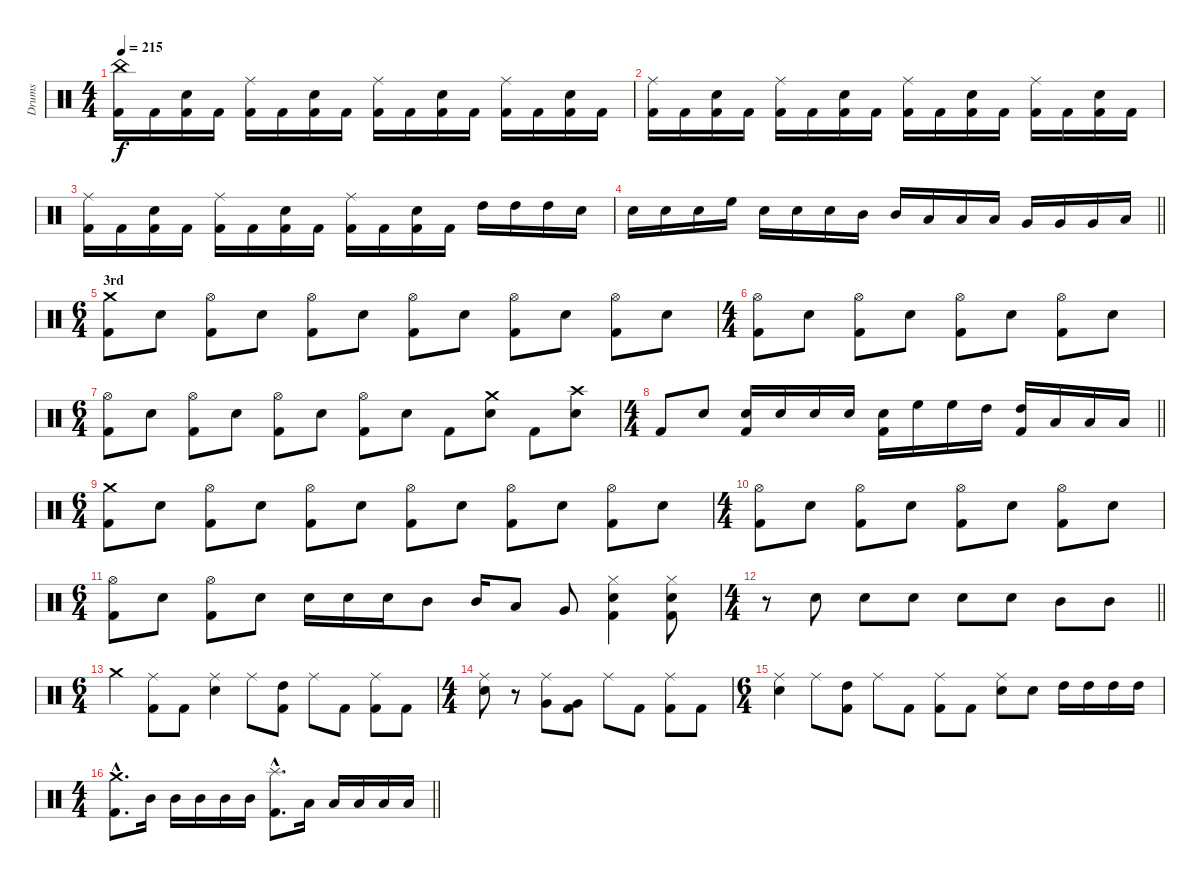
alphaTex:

\track ("Drums" "Drums") {instrument percussion}
\staff {score}
\articulation defaults
\ts (4 4)
\tempo 215
\clef neutral
\ks c
("China (hit)" "Kick (hit) 2").16{dy f} "Kick (hit) 2".16 ("Snare (hit) 2" "Kick (hit) 2").16 "Kick (hit) 2".16 ("Ride (middle)" "Kick (hit) 2").16 "Kick (hit) 2".16 ("Snare (hit) 2" "Kick (hit) 2").16 "Kick (hit) 2".16 ("Ride (middle)" "Kick (hit) 2").16 "Kick (hit) 2".16 ("Snare (hit) 2" "Kick (hit) 2").16 "Kick (hit) 2".16 ("Ride (middle)" "Kick (hit) 2").16 "Kick (hit) 2".16 ("Snare (hit) 2" "Kick (hit) 2").16 "Kick (hit) 2".16 |
("Ride (middle)" "Kick (hit) 2").16 "Kick (hit) 2".16 ("Snare (hit) 2" "Kick (hit) 2").16 "Kick (hit) 2".16 ("Ride (middle)" "Kick (hit) 2").16 "Kick (hit) 2".16 ("Snare (hit) 2" "Kick (hit) 2").16 "Kick (hit) 2".16 ("Ride (middle)" "Kick (hit) 2").16 "Kick (hit) 2".16 ("Snare (hit) 2" "Kick (hit) 2").16 "Kick (hit) 2".16 ("Ride (middle)" "Kick (hit) 2").16 "Kick (hit) 2".16 ("Snare (hit) 2" "Kick (hit) 2").16 "Kick (hit) 2".16 |
("Ride (middle)" "Kick (hit) 2").16 "Kick (hit) 2".16 ("Snare (hit) 2" "Kick (hit) 2").16 "Kick (hit) 2".16 ("Ride (middle)" "Kick (hit) 2").16 "Kick (hit) 2".16 ("Snare (hit) 2" "Kick (hit) 2").16 "Kick (hit) 2".16 ("Ride (middle)" "Kick (hit) 2").16 "Kick (hit) 2".16 ("Snare (hit) 2" "Kick (hit) 2").16 "Kick (hit) 2".16 "High Tom (hit)".16 "High Tom (hit)".16 "High Tom (hit)".16 "Snare (hit) 2".16 |
\barLineRight lightlight "Snare (hit) 2".16 "Snare (hit) 2".16 "Snare (hit) 2".16 "High Floor Tom (hit)".16 "Snare (hit) 2".16 "Snare (hit) 2".16 "Snare (hit) 2".16 "Mid Tom (hit)".16 "Mid Tom (hit)".16 "Low Tom (hit)".16 "Low Tom (hit)".16 "Low Tom (hit)".16 "Very Low Tom (hit)".16 "Very Low Tom (hit)".16 "Very Low Tom (hit)".16 "Low Floor Tom (hit)".16
|
\ts (6 4)
\section ("" "3rd")
("Crash medium (hit)" "Kick (hit) 2").8 "Snare (hit) 2".8 ("Hi-Hat (open)" "Kick (hit) 2").8 "Snare (hit) 2".8 ("Hi-Hat (open)" "Kick (hit) 2").8 "Snare (hit) 2".8 ("Hi-Hat (open)" "Kick (hit) 2").8 "Snare (hit) 2".8 ("Hi-Hat (open)" "Kick (hit) 2").8 "Snare (hit) 2".8 ("Hi-Hat (open)" "Kick (hit) 2").8 "Snare (hit) 2".8 |
\ts (4 4)
("Hi-Hat (open)" "Kick (hit) 2").8 "Snare (hit) 2".8 ("Hi-Hat (open)" "Kick (hit) 2").8 "Snare (hit) 2".8 ("Hi-Hat (open)" "Kick (hit) 2").8 "Snare (hit) 2".8 ("Hi-Hat (open)" "Kick (hit) 2").8 "Snare (hit) 2".8 |
\ts (6 4)
("Hi-Hat (open)" "Kick (hit) 2").8 "Snare (hit) 2".8 ("Hi-Hat (open)" "Kick (hit) 2").8 "Snare (hit) 2".8 ("Hi-Hat (open)" "Kick (hit) 2").8 "Snare (hit) 2".8 ("Hi-Hat (open)" "Kick (hit) 2").8 "Snare (hit) 2".8 "Kick (hit) 2".8 ("Crash medium (hit)" "Snare (hit) 2").8 "Kick (hit) 2".8 ("Crash high (hit)" "Snare (hit) 2").8 |
\ts (4 4)
\barLineRight lightlight "Kick (hit) 2".8 "Snare (hit) 2".8
("Snare (hit) 2" "Kick (hit) 2").16 "Snare (hit) 2".16 "Snare (hit) 2".16 "Snare (hit) 2".16 ("Snare (hit) 2" "Kick (hit) 2").16 "High Floor Tom (hit)".16 "High Floor Tom (hit)".16 "High Tom (hit)".16 ("High Tom (hit)" "Kick (hit) 2").16 "Low Tom (hit)".16 "Low Tom (hit)".16 "Low Tom (hit)".16 |
\ts (6 4)
("Crash medium (hit)" "Kick (hit) 2").8 "Snare (hit) 2".8 ("Hi-Hat (open)" "Kick (hit) 2").8 "Snare (hit) 2".8 ("Hi-Hat (open)" "Kick (hit) 2").8 "Snare (hit) 2".8 ("Hi-Hat (open)" "Kick (hit) 2").8 "Snare (hit) 2".8 ("Hi-Hat (open)" "Kick (hit) 2").8 "Snare (hit) 2".8 ("Hi-Hat (open)" "Kick (hit) 2").8 "Snare (hit) 2".8 |
\ts (4 4)
("Hi-Hat (open)" "Kick (hit) 2").8 "Snare (hit) 2".8 ("Hi-Hat (open)" "Kick (hit) 2").8 "Snare (hit) 2".8 ("Hi-Hat (open)" "Kick (hit) 2").8 "Snare (hit) 2".8 ("Hi-Hat (open)" "Kick (hit) 2").8 "Snare (hit) 2".8 |
\ts (6 4)
("Hi-Hat (open)" "Kick (hit) 2").8 "Snare (hit) 2".8 ("Hi-Hat (open)" "Kick (hit) 2").8 "Snare (hit) 2".8 "Snare (hit) 2".16 "Snare (hit) 2".16 "Snare (hit) 2".16 "Mid Tom (hit)".8 "Mid Tom (hit)".16 "Low Tom (hit)".8 "Very Low Tom (hit)".8 ("Hi-Hat (closed)" "Snare (hit) 2" "Kick (hit) 2").4 ("Hi-Hat (closed)" "Snare (hit) 2" "Kick (hit) 2").8 |
\ts (4 4)
\barLineRight lightlight
r.8 "Snare (hit) 2".8 "Snare (hit) 2".8 "Snare (hit) 2".8 "Snare (hit) 2".8 "Snare (hit) 2".8 "Mid Tom (hit)".8 "Mid Tom (hit)".8 |
\ts (6 4)
"Crash medium (hit)".4 ("Ride (middle)" "Kick (hit) 2").8 "Kick (hit) 2".8 ("Ride (middle)" "Snare (hit) 2").4 "Ride (middle)".8 ("High Tom (hit)" "Kick (hit) 2").8 "Ride (middle)".8 "Kick (hit) 2".8 ("Ride (middle)" "Kick (hit) 2").8 "Kick (hit) 2".8 |
\ts (4 4)
("Ride (middle)" "Snare (hit) 2").8 r.8 ("Ride (middle)" "Very Low Tom (hit)").8 ("Very Low Tom (hit)" "Kick (hit) 2").8 "Ride (middle)".8 "Kick (hit) 2".8 ("Ride (middle)" "Kick (hit) 2").8 "Kick (hit) 2".8 |
\ts (6 4)
("Ride (middle)" "Snare (hit) 2").4 "Ride (middle)".8 ("High Tom (hit)" "Kick (hit) 2").8 "Ride (middle)".8 "Kick (hit) 2".8 ("Ride (middle)" "Kick (hit) 2").8 "Kick (hit) 2".8 ("Ride (middle)" "Snare (hit) 2").8 "Snare (hit) 2".8 "High Tom (hit)".16 "High Tom (hit)".16 "High Tom (hit)".16 "High Tom (hit)".16 |
\ts (4 4)
\barLineRight lightlight
("Crash medium (hit)"{hac} "Kick (hit) 2"{hac}).8{d} "Mid Tom (hit)".16 "Mid Tom (hit)".16 "Mid Tom (hit)".16 "Mid Tom (hit)".16 "Mid Tom (hit)".16 ("Splash (hit)"{hac} "Kick (hit) 2"{hac}).8{d} "Low Tom (hit)".16 "Low Tom (hit)".16 "Low Tom (hit)".16 "Low Tom (hit)".16 "Low Tom (hit)".16
